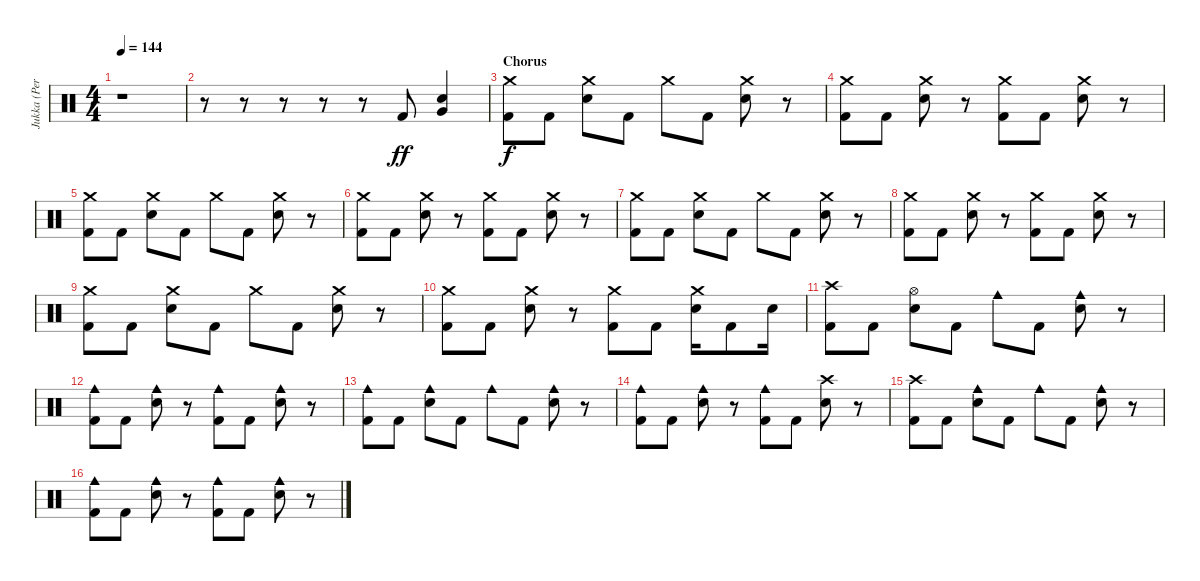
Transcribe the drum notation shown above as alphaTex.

\track ("Jukka (Percussion)" "Jukka (Per") {instrument percussion}
\staff {score}
\articulation defaults
\ts (4 4)
\tempo 144
\clef neutral
\ks c
r.1{dy fff} |
r.8 r.8 r.8 r.8 r.8 "Kick (hit) 2".8{dy ff} ("Electric Snare (hit)" "Very Low Tom (hit)").4 |
\section ("" "Chorus")
("Crash medium (hit)" "Kick (hit) 2").8{dy f} "Kick (hit) 2".8 ("Crash medium (hit)" "Electric Snare (hit)").8 "Kick (hit) 2".8 "Crash medium (hit)".8 "Kick (hit) 2".8 ("Crash medium (hit)" "Electric Snare (hit)").8 r.8 |
("Crash medium (hit)" "Kick (hit) 2").8 "Kick (hit) 2".8 ("Crash medium (hit)" "Electric Snare (hit)").8 r.8 ("Crash medium (hit)" "Kick (hit) 2").8 "Kick (hit) 2".8 ("Crash medium (hit)" "Electric Snare (hit)").8 r.8 |
("Crash medium (hit)" "Kick (hit) 2").8 "Kick (hit) 2".8 ("Crash medium (hit)" "Electric Snare (hit)").8 "Kick (hit) 2".8 "Crash medium (hit)".8 "Kick (hit) 2".8 ("Crash medium (hit)" "Electric Snare (hit)").8 r.8 |
("Crash medium (hit)" "Kick (hit) 2").8 "Kick (hit) 2".8 ("Crash medium (hit)" "Electric Snare (hit)").8 r.8 ("Crash medium (hit)" "Kick (hit) 2").8 "Kick (hit) 2".8 ("Crash medium (hit)" "Electric Snare (hit)").8 r.8 |
("Crash medium (hit)" "Kick (hit) 2").8 "Kick (hit) 2".8 ("Crash medium (hit)" "Electric Snare (hit)").8 "Kick (hit) 2".8 "Crash medium (hit)".8 "Kick (hit) 2".8 ("Crash medium (hit)" "Electric Snare (hit)").8 r.8 |
("Crash medium (hit)" "Kick (hit) 2").8 "Kick (hit) 2".8 ("Crash medium (hit)" "Electric Snare (hit)").8 r.8 ("Crash medium (hit)" "Kick (hit) 2").8 "Kick (hit) 2".8 ("Crash medium (hit)" "Electric Snare (hit)").8 r.8 |
("Crash medium (hit)" "Kick (hit) 2").8 "Kick (hit) 2".8 ("Crash medium (hit)" "Electric Snare (hit)").8 "Kick (hit) 2".8 "Crash medium (hit)".8 "Kick (hit) 2".8 ("Crash medium (hit)" "Electric Snare (hit)").8 r.8 |
("Crash medium (hit)" "Kick (hit) 2").8 "Kick (hit) 2".8 ("Crash medium (hit)" "Electric Snare (hit)").8 r.8 ("Crash medium (hit)" "Kick (hit) 2").8 "Kick (hit) 2".8 ("Crash medium (hit)" "Electric Snare (hit)").16 "Kick (hit) 2".8 "Electric Snare (hit)".16 |
("Crash high (hit)" "Kick (hit) 2").8 "Kick (hit) 2".8 ("Hi-Hat (open)" "Electric Snare (hit)").8 "Kick (hit) 2".8 "Cowbell medium (hit)".8 "Kick (hit) 2".8 ("Cowbell medium (hit)" "Electric Snare (hit)").8 r.8 |
("Cowbell medium (hit)" "Kick (hit) 2").8 "Kick (hit) 2".8 ("Cowbell medium (hit)" "Electric Snare (hit)").8 r.8 ("Cowbell medium (hit)" "Kick (hit) 2").8 "Kick (hit) 2".8 ("Cowbell medium (hit)" "Electric Snare (hit)").8 r.8 |
("Cowbell medium (hit)" "Kick (hit) 2").8 "Kick (hit) 2".8 ("Cowbell medium (hit)" "Electric Snare (hit)").8 "Kick (hit) 2".8 "Cowbell medium (hit)".8 "Kick (hit) 2".8 ("Cowbell medium (hit)" "Electric Snare (hit)").8 r.8 |
("Cowbell medium (hit)" "Kick (hit) 2").8 "Kick (hit) 2".8 ("Cowbell medium (hit)" "Electric Snare (hit)").8 r.8 ("Cowbell medium (hit)" "Kick (hit) 2").8 "Kick (hit) 2".8 ("Crash high (hit)" "Electric Snare (hit)").8 r.8 |
("Crash high (hit)" "Kick (hit) 2").8 "Kick (hit) 2".8 ("Cowbell medium (hit)" "Electric Snare (hit)").8 "Kick (hit) 2".8 "Cowbell medium (hit)".8 "Kick (hit) 2".8 ("Cowbell medium (hit)" "Electric Snare (hit)").8 r.8 |
("Cowbell medium (hit)" "Kick (hit) 2").8 "Kick (hit) 2".8 ("Cowbell medium (hit)" "Electric Snare (hit)").8 r.8 ("Cowbell medium (hit)" "Kick (hit) 2").8 "Kick (hit) 2".8 ("Cowbell medium (hit)" "Electric Snare (hit)").8 r.8
